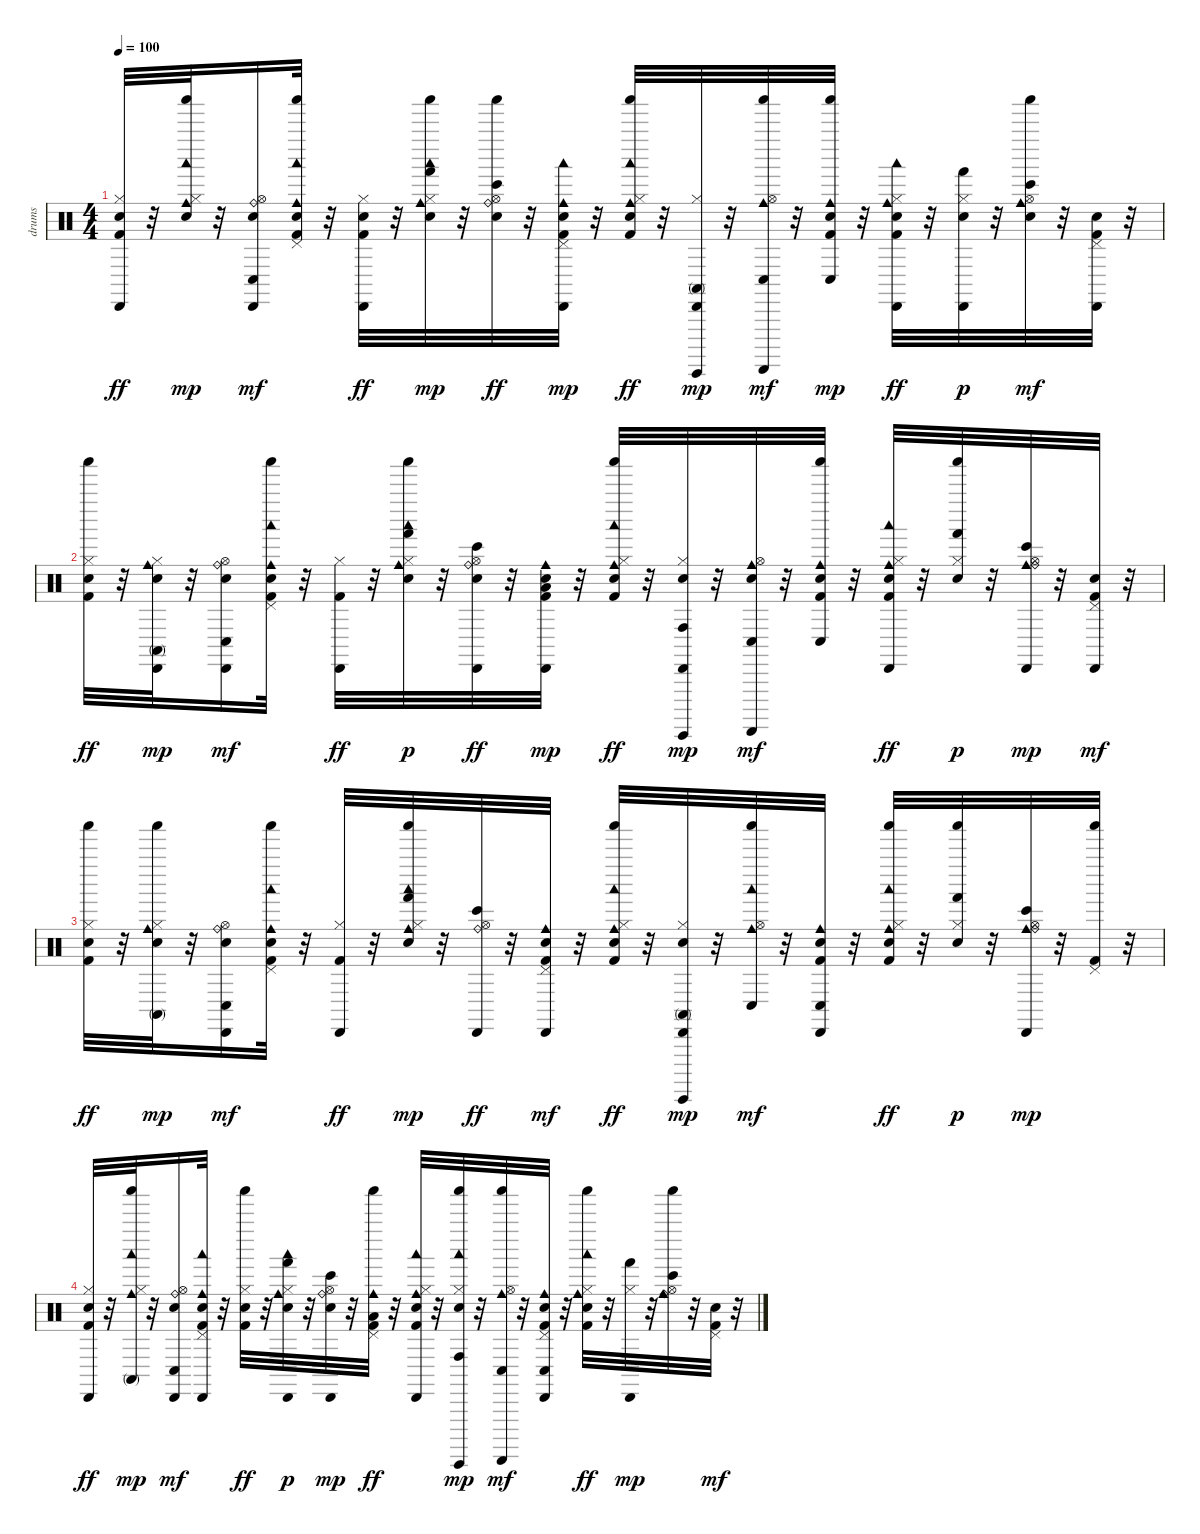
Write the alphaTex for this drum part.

\track ("drums" "drums") {instrument percussion}
\staff {score}
\articulation defaults
\ts (4 4)
\tempo 100
\clef neutral
\ks c
("Snare (hit) 2" "Hi-Hat (closed)" "Cabasa (hit)" "Kick (hit) 2").32{dy ff} r.32 ("Snare (hit) 2" "Hi-Hat (closed)" "Woodblock low (hit)" "Shaker (hit)" "Cowbell medium (hit)").32{dy mp} r.32 ("Snare (hit) 2" "Hi-Hat (open)" "Cabasa (hit)" "Ride (bell)" "Conga low (hit)").16{dy mf} ("Snare (hit) 2" "Pedal Hi-Hat (hit)" "Woodblock low (hit)" "Shaker (hit)" "Cowbell medium (hit)" "Kick (hit) 2").32 r.32 ("Snare (hit) 2" "Hi-Hat (closed)" "Cabasa (hit)" "Kick (hit) 2").32{dy ff} r.32 ("Snare (hit) 2" "Hi-Hat (closed)" "Woodblock low (hit)" "Shaker (hit)" "Cowbell medium (hit)" "Hand (hit)").32{dy mp} r.32 ("Snare (hit) 2" "Hi-Hat (open)" "Shaker (hit)" "Ride (bell)" "Bongo High (hit)").32{dy ff} r.32 ("Snare (hit) 2" "Pedal Hi-Hat (hit)" "Woodblock low (hit)" "Cabasa (hit)" "Cowbell medium (hit)" "Kick (hit) 2").32{dy mp} r.32 ("Snare (hit) 2" "Hi-Hat (closed)" "Woodblock low (hit)" "Shaker (hit)" "Cowbell medium (hit)" "Kick (hit) 2").32{dy ff} r.32 ("Hi-Hat (closed)" "Cabasa (hit)" "Guiro (hit)" "Conga high (mute)").32{dy mp} r.32 ("Hi-Hat (open)" "Shaker (hit)" "Guiro (scrap-return)" "Cowbell medium (hit)" "Conga low (hit)").32{dy mf} r.32 ("Snare (hit) 2" "Shaker (hit)" "Cowbell medium (hit)" "Kick (hit) 2" "Conga low (hit)").32{dy mp} r.32 ("Snare (hit) 2" "Hi-Hat (closed)" "Woodblock low (hit)" "Cabasa (hit)" "Cowbell medium (hit)" "Kick (hit) 2").32{dy ff} r.32 ("Snare (hit) 2" "Hi-Hat (closed)" "Cabasa (hit)" "Hand (hit)").32{dy p} r.32 ("Snare (hit) 2" "Hi-Hat (open)" "Shaker (hit)" "Cowbell medium (hit)" "Bongo High (hit)").32{dy mf} r.32 ("Snare (hit) 2" "Pedal Hi-Hat (hit)" "Cabasa (hit)" "Kick (hit) 2").32 r.32 |
("Snare (hit) 2" "Hi-Hat (closed)" "Shaker (hit)" "Kick (hit) 2").32{dy ff} r.32 ("Snare (hit) 2" "Hi-Hat (closed)" "Cabasa (hit)" "Cowbell medium (hit)" "Conga high (mute)").32{dy mp} r.32 ("Snare (hit) 2" "Hi-Hat (open)" "Cabasa (hit)" "Ride (bell)" "Conga low (hit)").16{dy mf} ("Snare (hit) 2" "Pedal Hi-Hat (hit)" "Woodblock low (hit)" "Shaker (hit)" "Cowbell medium (hit)" "Kick (hit) 2").32 r.32 ("Hi-Hat (closed)" "Cabasa (hit)" "Kick (hit) 2").32{dy ff} r.32 ("Snare (hit) 2" "Hi-Hat (closed)" "Woodblock low (hit)" "Shaker (hit)" "Cowbell medium (hit)" "Hand (hit)").32{dy p} r.32 ("Snare (hit) 2" "Hi-Hat (open)" "Cabasa (hit)" "Ride (bell)" "Bongo High (hit)").32{dy ff} r.32 ("Snare (hit) 2" "Cabasa (hit)" "Cowbell medium (hit)" "Kick (hit) 2" "Low Tom (hit)").32{dy mp} r.32 ("Snare (hit) 2" "Hi-Hat (closed)" "Woodblock low (hit)" "Shaker (hit)" "Cowbell medium (hit)" "Kick (hit) 2").32{dy ff} r.32 ("Snare (hit) 2" "Hi-Hat (closed)" "Cabasa (hit)" "Guiro (hit)" "Conga high (hit)").32{dy mp} r.32 ("Snare (hit) 2" "Hi-Hat (open)" "Guiro (scrap-return)" "Cowbell medium (hit)" "Conga low (hit)").32{dy mf} r.32 ("Snare (hit) 2" "Shaker (hit)" "Cowbell medium (hit)" "Kick (hit) 2" "Conga low (hit)").32 r.32 ("Snare (hit) 2" "Hi-Hat (closed)" "Woodblock low (hit)" "Cabasa (hit)" "Cowbell medium (hit)" "Kick (hit) 2").32{dy ff} r.32 ("Snare (hit) 2" "Hi-Hat (closed)" "Shaker (hit)" "Hand (hit)").32{dy p} r.32 ("Hi-Hat (open)" "Cabasa (hit)" "Cowbell medium (hit)" "Ride (bell)" "Bongo High (hit)").32{dy mp} r.32 ("Snare (hit) 2" "Pedal Hi-Hat (hit)" "Cabasa (hit)" "Kick (hit) 2").32{dy mf} r.32 |
("Snare (hit) 2" "Hi-Hat (closed)" "Shaker (hit)" "Kick (hit) 2").32{dy ff} r.32 ("Snare (hit) 2" "Hi-Hat (closed)" "Shaker (hit)" "Cowbell medium (hit)" "Conga high (mute)").32{dy mp} r.32 ("Snare (hit) 2" "Hi-Hat (open)" "Cabasa (hit)" "Ride (bell)" "Conga low (hit)").16{dy mf} ("Snare (hit) 2" "Pedal Hi-Hat (hit)" "Woodblock low (hit)" "Shaker (hit)" "Cowbell medium (hit)" "Kick (hit) 2").32 r.32 ("Hi-Hat (closed)" "Cabasa (hit)" "Kick (hit) 2").32{dy ff} r.32 ("Snare (hit) 2" "Hi-Hat (closed)" "Woodblock low (hit)" "Shaker (hit)" "Cowbell medium (hit)" "Hand (hit)").32{dy mp} r.32 ("Hi-Hat (open)" "Cabasa (hit)" "Ride (bell)" "Bongo High (hit)").32{dy ff} r.32 ("Snare (hit) 2" "Pedal Hi-Hat (hit)" "Cabasa (hit)" "Cowbell medium (hit)" "Kick (hit) 2").32{dy mf} r.32 ("Snare (hit) 2" "Hi-Hat (closed)" "Woodblock low (hit)" "Shaker (hit)" "Cowbell medium (hit)" "Kick (hit) 2").32{dy ff} r.32 ("Snare (hit) 2" "Hi-Hat (closed)" "Cabasa (hit)" "Guiro (hit)" "Conga high (mute)").32{dy mp} r.32 ("Hi-Hat (open)" "Woodblock low (hit)" "Shaker (hit)" "Cowbell medium (hit)" "Conga low (hit)").32{dy mf} r.32 ("Snare (hit) 2" "Cabasa (hit)" "Cowbell medium (hit)" "Kick (hit) 2" "Conga low (hit)").32 r.32 ("Snare (hit) 2" "Hi-Hat (closed)" "Woodblock low (hit)" "Shaker (hit)" "Cowbell medium (hit)" "Kick (hit) 2").32{dy ff} r.32 ("Snare (hit) 2" "Hi-Hat (closed)" "Shaker (hit)" "Hand (hit)").32{dy p} r.32 ("Hi-Hat (open)" "Cabasa (hit)" "Cowbell medium (hit)" "Ride (bell)" "Bongo High (hit)").32{dy mp} r.32 ("Pedal Hi-Hat (hit)" "Shaker (hit)" "Kick (hit) 2").32 r.32 |
("Snare (hit) 2" "Hi-Hat (closed)" "Cabasa (hit)" "Kick (hit) 2").32{dy ff} r.32 ("Hi-Hat (closed)" "Woodblock low (hit)" "Shaker (hit)" "Cowbell medium (hit)" "Conga high (mute)").32{dy mp} r.32 ("Snare (hit) 2" "Hi-Hat (open)" "Cabasa (hit)" "Ride (bell)" "Conga low (hit)").16{dy mf} ("Snare (hit) 2" "Pedal Hi-Hat (hit)" "Woodblock low (hit)" "Cabasa (hit)" "Cowbell medium (hit)" "Kick (hit) 2").32 r.32 ("Snare (hit) 2" "Hi-Hat (closed)" "Shaker (hit)" "Kick (hit) 2").32{dy ff} r.32 ("Snare (hit) 2" "Hi-Hat (closed)" "Woodblock low (hit)" "Cabasa (hit)" "Cowbell medium (hit)" "Hand (hit)").32{dy p} r.32 ("Snare (hit) 2" "Hi-Hat (open)" "Cabasa (hit)" "Ride (bell)" "Bongo High (hit)").32{dy mp} r.32 ("Pedal Hi-Hat (hit)" "Shaker (hit)" "Cowbell medium (hit)" "Kick (hit) 2" "Low Tom (hit)").32{dy ff} r.32 ("Snare (hit) 2" "Hi-Hat (closed)" "Woodblock low (hit)" "Cabasa (hit)" "Cowbell medium (hit)" "Kick (hit) 2").32 r.32 ("Snare (hit) 2" "Hi-Hat (closed)" "Woodblock low (hit)" "Shaker (hit)" "Guiro (hit)" "Conga high (hit)").32{dy mp} r.32 ("Hi-Hat (open)" "Shaker (hit)" "Guiro (scrap-return)" "Cowbell medium (hit)" "Conga low (hit)").32{dy mf} r.32 ("Snare (hit) 2" "Pedal Hi-Hat (hit)" "Cabasa (hit)" "Cowbell medium (hit)" "Kick (hit) 2" "Conga low (hit)").32 r.32 ("Snare (hit) 2" "Hi-Hat (closed)" "Woodblock low (hit)" "Shaker (hit)" "Cowbell medium (hit)" "Kick (hit) 2").32{dy ff} r.32 ("Hi-Hat (closed)" "Cabasa (hit)" "Hand (hit)").32{dy mp} r.32 ("Hi-Hat (open)" "Shaker (hit)" "Cowbell medium (hit)" "Ride (bell)" "Bongo High (hit)").32 r.32 ("Snare (hit) 2" "Pedal Hi-Hat (hit)" "Kick (hit) 2").32{dy mf} r.32
